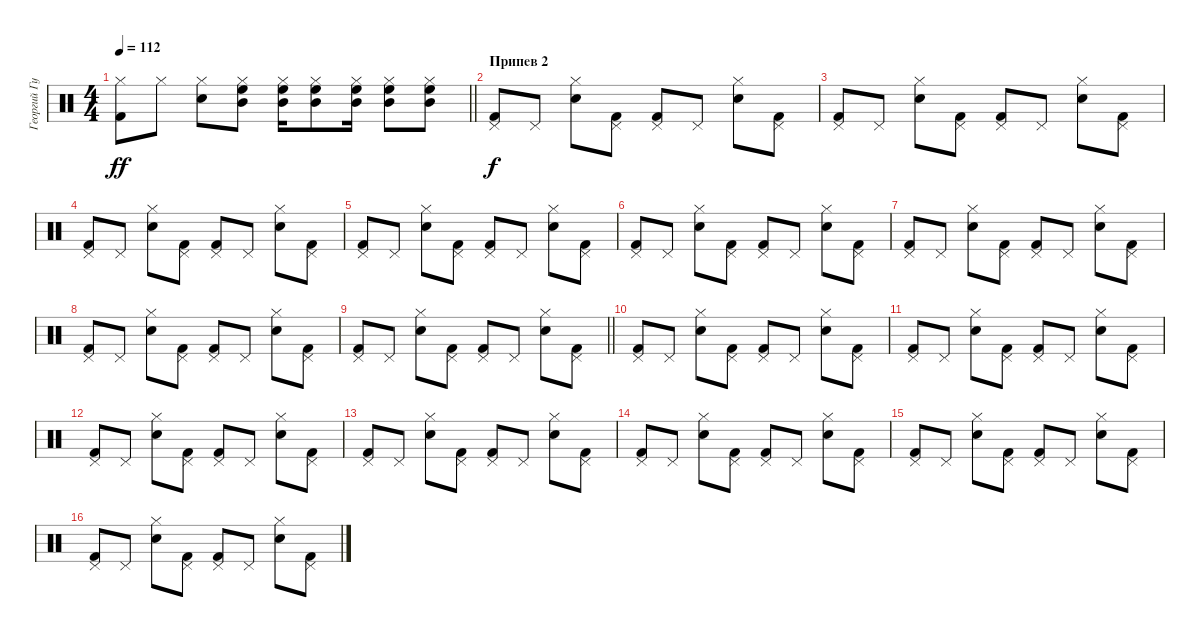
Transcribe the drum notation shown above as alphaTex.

\track ("Георгий Гурьянов" "Георгий Гу") {instrument percussion}
\staff {score}
\articulation defaults
\ts (4 4)
\tempo 112
\clef neutral
\barLineRight lightlight
\ks c
("Hi-Hat (closed)" "Kick (hit) 2").8{dy ff} "Hi-Hat (closed)".8 ("Hi-Hat (closed)" "Electric Snare (hit)").8 ("Hi-Hat (closed)" "Mid Tom (hit)" "High Floor Tom (hit)").8 ("Hi-Hat (closed)" "Mid Tom (hit)" "High Floor Tom (hit)").16 ("Hi-Hat (closed)" "Mid Tom (hit)" "High Floor Tom (hit)").8 ("Hi-Hat (closed)" "Mid Tom (hit)" "High Floor Tom (hit)").16 ("Hi-Hat (closed)" "Mid Tom (hit)" "High Floor Tom (hit)").8 ("Hi-Hat (closed)" "Mid Tom (hit)" "High Floor Tom (hit)").8 |
\section ("" "Припев 2")
("Pedal Hi-Hat (hit)" "Kick (hit) 2").8{dy f} "Pedal Hi-Hat (hit)".8 ("Hi-Hat (closed)" "Electric Snare (hit)").8 ("Pedal Hi-Hat (hit)" "Kick (hit) 2").8 ("Pedal Hi-Hat (hit)" "Kick (hit) 2").8 "Pedal Hi-Hat (hit)".8 ("Hi-Hat (closed)" "Electric Snare (hit)").8 ("Pedal Hi-Hat (hit)" "Kick (hit) 2").8 |
("Pedal Hi-Hat (hit)" "Kick (hit) 2").8 "Pedal Hi-Hat (hit)".8 ("Hi-Hat (closed)" "Electric Snare (hit)").8 ("Pedal Hi-Hat (hit)" "Kick (hit) 2").8 ("Pedal Hi-Hat (hit)" "Kick (hit) 2").8 "Pedal Hi-Hat (hit)".8 ("Hi-Hat (closed)" "Electric Snare (hit)").8 ("Pedal Hi-Hat (hit)" "Kick (hit) 2").8 |
("Pedal Hi-Hat (hit)" "Kick (hit) 2").8 "Pedal Hi-Hat (hit)".8 ("Hi-Hat (closed)" "Electric Snare (hit)").8 ("Pedal Hi-Hat (hit)" "Kick (hit) 2").8 ("Pedal Hi-Hat (hit)" "Kick (hit) 2").8 "Pedal Hi-Hat (hit)".8 ("Hi-Hat (closed)" "Electric Snare (hit)").8 ("Pedal Hi-Hat (hit)" "Kick (hit) 2").8 |
("Pedal Hi-Hat (hit)" "Kick (hit) 2").8 "Pedal Hi-Hat (hit)".8 ("Hi-Hat (closed)" "Electric Snare (hit)").8 ("Pedal Hi-Hat (hit)" "Kick (hit) 2").8 ("Pedal Hi-Hat (hit)" "Kick (hit) 2").8 "Pedal Hi-Hat (hit)".8 ("Hi-Hat (closed)" "Electric Snare (hit)").8 ("Pedal Hi-Hat (hit)" "Kick (hit) 2").8 |
("Pedal Hi-Hat (hit)" "Kick (hit) 2").8 "Pedal Hi-Hat (hit)".8 ("Hi-Hat (closed)" "Electric Snare (hit)").8 ("Pedal Hi-Hat (hit)" "Kick (hit) 2").8 ("Pedal Hi-Hat (hit)" "Kick (hit) 2").8 "Pedal Hi-Hat (hit)".8 ("Hi-Hat (closed)" "Electric Snare (hit)").8 ("Pedal Hi-Hat (hit)" "Kick (hit) 2").8 |
("Pedal Hi-Hat (hit)" "Kick (hit) 2").8 "Pedal Hi-Hat (hit)".8 ("Hi-Hat (closed)" "Electric Snare (hit)").8 ("Pedal Hi-Hat (hit)" "Kick (hit) 2").8 ("Pedal Hi-Hat (hit)" "Kick (hit) 2").8 "Pedal Hi-Hat (hit)".8 ("Hi-Hat (closed)" "Electric Snare (hit)").8 ("Pedal Hi-Hat (hit)" "Kick (hit) 2").8 |
("Pedal Hi-Hat (hit)" "Kick (hit) 2").8 "Pedal Hi-Hat (hit)".8 ("Hi-Hat (closed)" "Electric Snare (hit)").8 ("Pedal Hi-Hat (hit)" "Kick (hit) 2").8 ("Pedal Hi-Hat (hit)" "Kick (hit) 2").8 "Pedal Hi-Hat (hit)".8 ("Hi-Hat (closed)" "Electric Snare (hit)").8 ("Pedal Hi-Hat (hit)" "Kick (hit) 2").8 |
\barLineRight lightlight
("Pedal Hi-Hat (hit)" "Kick (hit) 2").8 "Pedal Hi-Hat (hit)".8 ("Hi-Hat (closed)" "Electric Snare (hit)").8 ("Pedal Hi-Hat (hit)" "Kick (hit) 2").8 ("Pedal Hi-Hat (hit)" "Kick (hit) 2").8 "Pedal Hi-Hat (hit)".8 ("Hi-Hat (closed)" "Electric Snare (hit)").8 ("Pedal Hi-Hat (hit)" "Kick (hit) 2").8 |
("Pedal Hi-Hat (hit)" "Kick (hit) 2").8 "Pedal Hi-Hat (hit)".8 ("Hi-Hat (closed)" "Electric Snare (hit)").8 ("Pedal Hi-Hat (hit)" "Kick (hit) 2").8 ("Pedal Hi-Hat (hit)" "Kick (hit) 2").8 "Pedal Hi-Hat (hit)".8 ("Hi-Hat (closed)" "Electric Snare (hit)").8 ("Pedal Hi-Hat (hit)" "Kick (hit) 2").8 |
("Pedal Hi-Hat (hit)" "Kick (hit) 2").8 "Pedal Hi-Hat (hit)".8 ("Hi-Hat (closed)" "Electric Snare (hit)").8 ("Pedal Hi-Hat (hit)" "Kick (hit) 2").8 ("Pedal Hi-Hat (hit)" "Kick (hit) 2").8 "Pedal Hi-Hat (hit)".8 ("Hi-Hat (closed)" "Electric Snare (hit)").8 ("Pedal Hi-Hat (hit)" "Kick (hit) 2").8 |
("Pedal Hi-Hat (hit)" "Kick (hit) 2").8 "Pedal Hi-Hat (hit)".8 ("Hi-Hat (closed)" "Electric Snare (hit)").8 ("Pedal Hi-Hat (hit)" "Kick (hit) 2").8 ("Pedal Hi-Hat (hit)" "Kick (hit) 2").8 "Pedal Hi-Hat (hit)".8 ("Hi-Hat (closed)" "Electric Snare (hit)").8 ("Pedal Hi-Hat (hit)" "Kick (hit) 2").8 |
("Pedal Hi-Hat (hit)" "Kick (hit) 2").8 "Pedal Hi-Hat (hit)".8 ("Hi-Hat (closed)" "Electric Snare (hit)").8 ("Pedal Hi-Hat (hit)" "Kick (hit) 2").8 ("Pedal Hi-Hat (hit)" "Kick (hit) 2").8 "Pedal Hi-Hat (hit)".8 ("Hi-Hat (closed)" "Electric Snare (hit)").8 ("Pedal Hi-Hat (hit)" "Kick (hit) 2").8 |
("Pedal Hi-Hat (hit)" "Kick (hit) 2").8 "Pedal Hi-Hat (hit)".8 ("Hi-Hat (closed)" "Electric Snare (hit)").8 ("Pedal Hi-Hat (hit)" "Kick (hit) 2").8 ("Pedal Hi-Hat (hit)" "Kick (hit) 2").8 "Pedal Hi-Hat (hit)".8 ("Hi-Hat (closed)" "Electric Snare (hit)").8 ("Pedal Hi-Hat (hit)" "Kick (hit) 2").8 |
("Pedal Hi-Hat (hit)" "Kick (hit) 2").8 "Pedal Hi-Hat (hit)".8 ("Hi-Hat (closed)" "Electric Snare (hit)").8 ("Pedal Hi-Hat (hit)" "Kick (hit) 2").8 ("Pedal Hi-Hat (hit)" "Kick (hit) 2").8 "Pedal Hi-Hat (hit)".8 ("Hi-Hat (closed)" "Electric Snare (hit)").8 ("Pedal Hi-Hat (hit)" "Kick (hit) 2").8 |
("Pedal Hi-Hat (hit)" "Kick (hit) 2").8 "Pedal Hi-Hat (hit)".8 ("Hi-Hat (closed)" "Electric Snare (hit)").8 ("Pedal Hi-Hat (hit)" "Kick (hit) 2").8 ("Pedal Hi-Hat (hit)" "Kick (hit) 2").8 "Pedal Hi-Hat (hit)".8 ("Hi-Hat (closed)" "Electric Snare (hit)").8 ("Pedal Hi-Hat (hit)" "Kick (hit) 2").8
